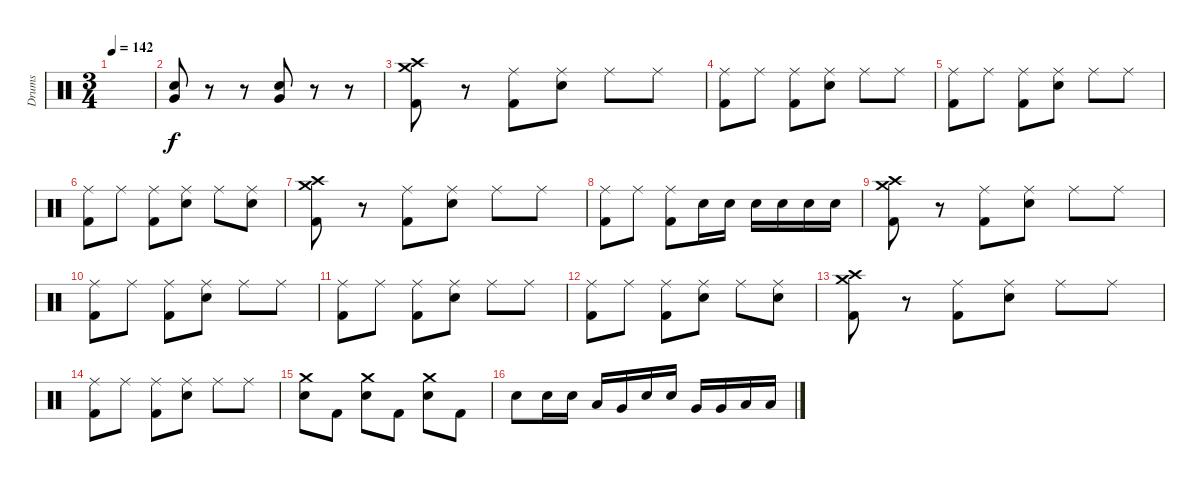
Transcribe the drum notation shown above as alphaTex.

\track ("Drums" "Drums") {instrument percussion}
\staff {score}
\articulation defaults
\ts (3 4)
\tempo 142
\clef neutral
\ks c
|
("Electric Snare (hit)" "Very Low Tom (hit)").8 r.8 r.8 ("Electric Snare (hit)" "Very Low Tom (hit)").8 r.8 r.8 |
("Crash medium (hit)" "Crash high (hit)" "Kick (hit) 2").8 r.8 ("Ride (middle)" "Kick (hit) 2").8 ("Ride (middle)" "Electric Snare (hit)").8 "Ride (middle)".8 "Ride (middle)".8 |
("Ride (middle)" "Kick (hit) 2").8 "Ride (middle)".8 ("Ride (middle)" "Kick (hit) 2").8 ("Ride (middle)" "Electric Snare (hit)").8 "Ride (middle)".8 "Ride (middle)".8 |
("Ride (middle)" "Kick (hit) 2").8 "Ride (middle)".8 ("Ride (middle)" "Kick (hit) 2").8 ("Ride (middle)" "Electric Snare (hit)").8 "Ride (middle)".8 "Ride (middle)".8 |
("Ride (middle)" "Kick (hit) 2").8 "Ride (middle)".8 ("Ride (middle)" "Kick (hit) 2").8 ("Ride (middle)" "Electric Snare (hit)").8 "Ride (middle)".8 ("Ride (middle)" "Electric Snare (hit)").8 |
("Crash medium (hit)" "Crash high (hit)" "Kick (hit) 2").8 r.8 ("Ride (middle)" "Kick (hit) 2").8 ("Ride (middle)" "Electric Snare (hit)").8 "Ride (middle)".8 "Ride (middle)".8 |
("Ride (middle)" "Kick (hit) 2").8 "Ride (middle)".8 ("Ride (middle)" "Kick (hit) 2").8 "Electric Snare (hit)".16 "Electric Snare (hit)".16 "Electric Snare (hit)".16 "Electric Snare (hit)".16 "Electric Snare (hit)".16 "Electric Snare (hit)".16 |
("Crash medium (hit)" "Crash high (hit)" "Kick (hit) 2").8 r.8 ("Ride (middle)" "Kick (hit) 2").8 ("Ride (middle)" "Electric Snare (hit)").8 "Ride (middle)".8 "Ride (middle)".8 |
("Ride (middle)" "Kick (hit) 2").8 "Ride (middle)".8 ("Ride (middle)" "Kick (hit) 2").8 ("Ride (middle)" "Electric Snare (hit)").8 "Ride (middle)".8 "Ride (middle)".8 |
("Ride (middle)" "Kick (hit) 2").8 "Ride (middle)".8 ("Ride (middle)" "Kick (hit) 2").8 ("Ride (middle)" "Electric Snare (hit)").8 "Ride (middle)".8 "Ride (middle)".8 |
("Ride (middle)" "Kick (hit) 2").8 "Ride (middle)".8 ("Ride (middle)" "Kick (hit) 2").8 ("Ride (middle)" "Electric Snare (hit)").8 "Ride (middle)".8 ("Ride (middle)" "Electric Snare (hit)").8 |
("Crash medium (hit)" "Crash high (hit)" "Kick (hit) 2").8 r.8 ("Ride (middle)" "Kick (hit) 2").8 ("Ride (middle)" "Electric Snare (hit)").8 "Ride (middle)".8 "Ride (middle)".8 |
("Ride (middle)" "Kick (hit) 2").8 "Ride (middle)".8 ("Ride (middle)" "Kick (hit) 2").8 ("Ride (middle)" "Electric Snare (hit)").8 "Ride (middle)".8 "Ride (middle)".8 |
("Crash medium (hit)" "Electric Snare (hit)").8 "Kick (hit) 2".8 ("Crash medium (hit)" "Electric Snare (hit)").8 "Kick (hit) 2".8 ("Crash medium (hit)" "Electric Snare (hit)").8 "Kick (hit) 2".8 |
"Electric Snare (hit)".8 "Electric Snare (hit)".16 "Electric Snare (hit)".16 "Low Tom (hit)".16 "Very Low Tom (hit)".16 "Electric Snare (hit)".16 "Electric Snare (hit)".16 "Very Low Tom (hit)".16 "Very Low Tom (hit)".16 "Low Tom (hit)".16 "Low Tom (hit)".16
